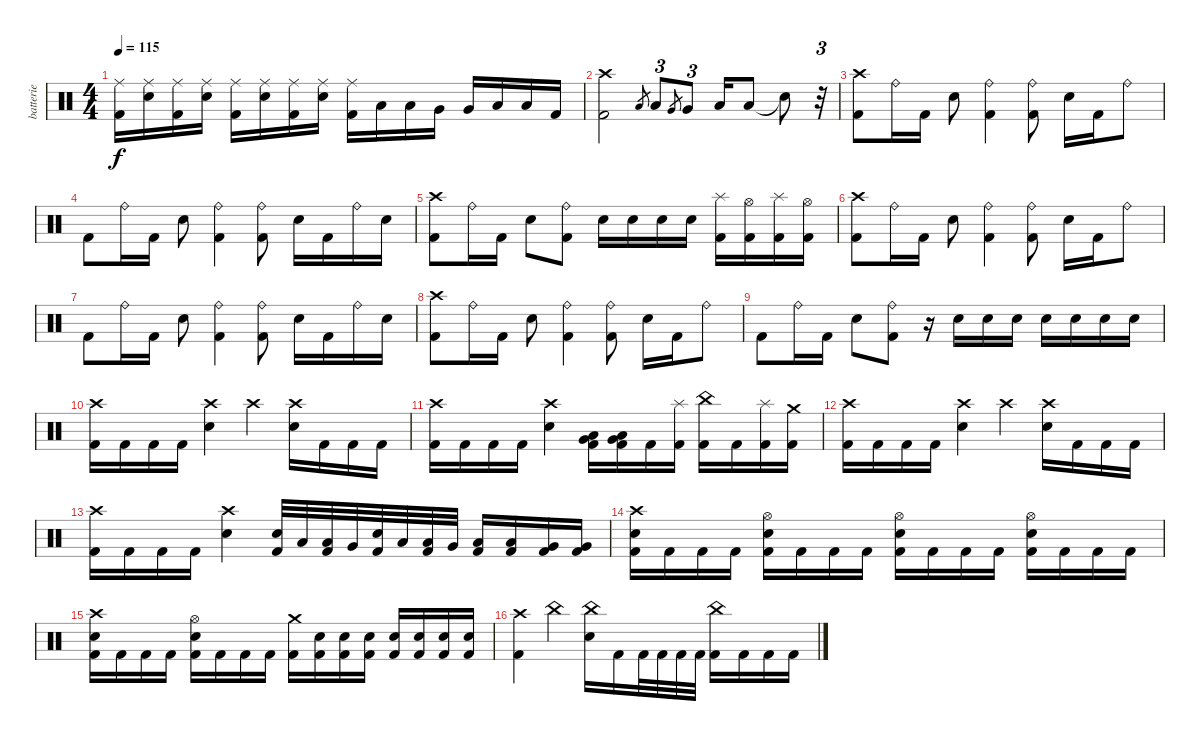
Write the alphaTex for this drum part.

\track ("batterie" "batterie") {instrument percussion}
\staff {score}
\articulation defaults
\ts (4 4)
\tempo 115
\clef neutral
\ks c
("Ride (middle)" "Kick (hit) 2").16{dy f} ("Ride (middle)" "Electric Snare (hit)").16 ("Ride (middle)" "Kick (hit) 2").16 ("Ride (middle)" "Electric Snare (hit)").16 ("Ride (middle)" "Kick (hit) 2").16 ("Ride (middle)" "Electric Snare (hit)").16 ("Ride (middle)" "Kick (hit) 2").16 ("Ride (middle)" "Electric Snare (hit)").16 ("Ride (middle)" "Kick (hit) 2").16 "Low Tom (hit)".16 "Low Tom (hit)".16 "Very Low Tom (hit)".16 "Very Low Tom (hit)".16 "Low Floor Tom (hit)".16 "Low Floor Tom (hit)".16 "Kick (hit) 2".16 |
("Crash high (hit)" "Kick (hit) 2").2 "Low Tom (hit)".8{gr} "Low Tom (hit)".8{tu (3 2)} "Very Low Tom (hit)".8{gr} "Very Low Tom (hit)".8{tu (3 2)} "Low Floor Tom (hit)".16 "Low Floor Tom (hit)".8 "Snare (hit)"{t}.8 r.32{tu (3 2)} |
("Crash high (hit)" "Kick (hit) 2").8 "Ride (bell)".16 "Kick (hit) 2".16 "Electric Snare (hit)".8 ("Ride (bell)" "Kick (hit) 2").4 ("Ride (bell)" "Kick (hit) 2").8 "Electric Snare (hit)".16 "Kick (hit) 2".16 "Ride (bell)".8 |
"Kick (hit) 2".8 "Ride (bell)".16 "Kick (hit) 2".16 "Electric Snare (hit)".8 ("Ride (bell)" "Kick (hit) 2").4 ("Ride (bell)" "Kick (hit) 2").8 "Electric Snare (hit)".16 "Kick (hit) 2".16 "Ride (bell)".16 "Electric Snare (hit)".16 |
("Crash high (hit)" "Kick (hit) 2").8 "Ride (bell)".16 "Kick (hit) 2".16 "Electric Snare (hit)".8 ("Ride (bell)" "Kick (hit) 2").8 "Electric Snare (hit)".16 "Electric Snare (hit)".16 "Electric Snare (hit)".16 "Electric Snare (hit)".16 ("Splash (hit)" "Kick (hit) 2").16 ("Hi-Hat (open)" "Kick (hit) 2").16 ("Splash (hit)" "Kick (hit) 2").16 ("Hi-Hat (open)" "Kick (hit) 2").16 |
("Crash high (hit)" "Kick (hit) 2").8 "Ride (bell)".16 "Kick (hit) 2".16 "Electric Snare (hit)".8 ("Ride (bell)" "Kick (hit) 2").4 ("Ride (bell)" "Kick (hit) 2").8 "Electric Snare (hit)".16 "Kick (hit) 2".16 "Ride (bell)".8 |
"Kick (hit) 2".8 "Ride (bell)".16 "Kick (hit) 2".16 "Electric Snare (hit)".8 ("Ride (bell)" "Kick (hit) 2").4 ("Ride (bell)" "Kick (hit) 2").8 "Electric Snare (hit)".16 "Kick (hit) 2".16 "Ride (bell)".16 "Electric Snare (hit)".16 |
("Crash high (hit)" "Kick (hit) 2").8 "Ride (bell)".16 "Kick (hit) 2".16 "Electric Snare (hit)".8 ("Ride (bell)" "Kick (hit) 2").4 ("Ride (bell)" "Kick (hit) 2").8 "Electric Snare (hit)".16 "Kick (hit) 2".16 "Ride (bell)".8 |
"Kick (hit) 2".8 "Ride (bell)".16 "Kick (hit) 2".16 "Electric Snare (hit)".8 ("Ride (bell)" "Kick (hit) 2").8 r.16 "Electric Snare (hit)".16 "Electric Snare (hit)".16 "Electric Snare (hit)".16 "Electric Snare (hit)".16 "Electric Snare (hit)".16 "Electric Snare (hit)".16 "Electric Snare (hit)".16 |
("Crash high (hit)" "Kick (hit) 2").16 "Kick (hit) 2".16 "Kick (hit) 2".16 "Kick (hit) 2".16 ("Crash high (hit)" "Electric Snare (hit)").4 "Crash high (hit)".4 ("Crash high (hit)" "Electric Snare (hit)").16 "Kick (hit) 2".16 "Kick (hit) 2".16 "Kick (hit) 2".16 |
("Crash high (hit)" "Kick (hit) 2").16 "Kick (hit) 2".16 "Kick (hit) 2".16 "Kick (hit) 2".16 ("Crash high (hit)" "Electric Snare (hit)").4 ("Low Tom (hit)" "Very Low Tom (hit)" "Kick (hit) 2").16 ("Low Tom (hit)" "Very Low Tom (hit)" "Kick (hit) 2").16 "Kick (hit) 2".16 ("Splash (hit)" "Kick (hit) 2").16 ("China (hit)" "Kick (hit) 2").16 "Kick (hit) 2".16 ("Splash (hit)" "Kick (hit) 2").16 ("Crash medium (hit)" "Kick (hit) 2").16 |
("Crash high (hit)" "Kick (hit) 2").16 "Kick (hit) 2".16 "Kick (hit) 2".16 "Kick (hit) 2".16 ("Crash high (hit)" "Electric Snare (hit)").4 "Crash high (hit)".4 ("Crash high (hit)" "Electric Snare (hit)").16 "Kick (hit) 2".16 "Kick (hit) 2".16 "Kick (hit) 2".16 |
("Crash high (hit)" "Kick (hit) 2").16 "Kick (hit) 2".16 "Kick (hit) 2".16 "Kick (hit) 2".16 ("Crash high (hit)" "Electric Snare (hit)").4 ("Electric Snare (hit)" "Kick (hit) 2").32 "Low Tom (hit)".32 ("Low Tom (hit)" "Kick (hit) 2").32 "Very Low Tom (hit)".32 ("Electric Snare (hit)" "Kick (hit) 2").32 "Low Tom (hit)".32 ("Low Tom (hit)" "Kick (hit) 2").32 "Very Low Tom (hit)".32 ("Low Tom (hit)" "Kick (hit) 2").16 ("Low Tom (hit)" "Kick (hit) 2").16 ("Very Low Tom (hit)" "Kick (hit) 2").16 ("Very Low Tom (hit)" "Kick (hit) 2").16 |
("Crash high (hit)" "Electric Snare (hit)" "Kick (hit) 2").16 "Kick (hit) 2".16 "Kick (hit) 2".16 "Kick (hit) 2".16 ("Hi-Hat (open)" "Electric Snare (hit)" "Kick (hit) 2").16 "Kick (hit) 2".16 "Kick (hit) 2".16 "Kick (hit) 2".16 ("Hi-Hat (open)" "Electric Snare (hit)" "Kick (hit) 2").16 "Kick (hit) 2".16 "Kick (hit) 2".16 "Kick (hit) 2".16 ("Hi-Hat (open)" "Electric Snare (hit)" "Kick (hit) 2").16 "Kick (hit) 2".16 "Kick (hit) 2".16 "Kick (hit) 2".16 |
("Crash high (hit)" "Electric Snare (hit)" "Kick (hit) 2").16 "Kick (hit) 2".16 "Kick (hit) 2".16 "Kick (hit) 2".16 ("Hi-Hat (open)" "Electric Snare (hit)" "Kick (hit) 2").16 "Kick (hit) 2".16 "Kick (hit) 2".16 "Kick (hit) 2".16 ("Crash medium (hit)" "Kick (hit) 2").16 ("Electric Snare (hit)" "Kick (hit) 2").16 ("Electric Snare (hit)" "Kick (hit) 2").16 ("Electric Snare (hit)" "Kick (hit) 2").16 ("Electric Snare (hit)" "Kick (hit) 2").16 ("Electric Snare (hit)" "Kick (hit) 2").16 ("Electric Snare (hit)" "Kick (hit) 2").16 ("Electric Snare (hit)" "Kick (hit) 2").16 |
("Crash high (hit)" "Kick (hit) 2").4 "China (hit)".4 ("China (hit)" "Electric Snare (hit)").16 "Kick (hit) 2".16 "Kick (hit) 2".32 "Kick (hit) 2".32 "Kick (hit) 2".32 "Kick (hit) 2".32 ("China (hit)" "Kick (hit) 2").16 "Kick (hit) 2".16 "Kick (hit) 2".16 "Kick (hit) 2".16
